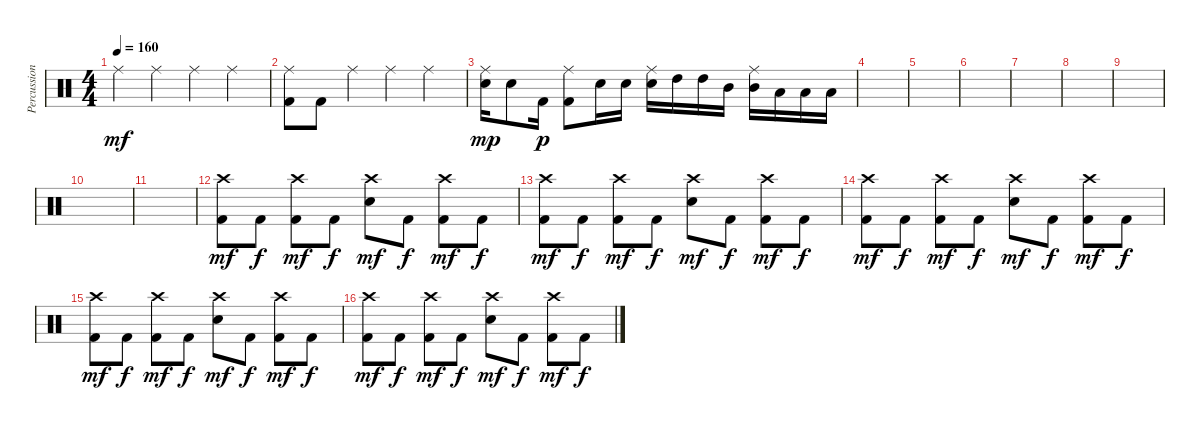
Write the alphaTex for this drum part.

\track ("Percussion" "Percussion") {instrument percussion}
\staff {score}
\articulation defaults
\ts (4 4)
\tempo 160
\clef neutral
\ks c "Ride (middle)".4{dy mf} "Ride (middle)".4 "Ride (middle)".4 "Ride (middle)".4
|
("Ride (middle)" "Kick (hit) 2").8 "Kick (hit) 2".8 "Ride (middle)".4 "Ride (middle)".4 "Ride (middle)".4 |
("Ride (middle)" "Electric Snare (hit)").16{dy mp} "Electric Snare (hit)".8 "Kick (hit) 2".16{dy p} ("Ride (middle)" "Kick (hit) 2").8 "Electric Snare (hit)".16 "Electric Snare (hit)".16 ("Ride (middle)" "Electric Snare (hit)").16 "High Tom (hit)".16 "High Tom (hit)".16 "Mid Tom (hit)".16 ("Ride (middle)" "Mid Tom (hit)").16 "Low Tom (hit)".16 "Low Tom (hit)".16 "Low Tom (hit)".16 |
|
|
|
|
|
|
|
|
("Crash high (hit)" "Kick (hit) 2").8{dy mf} "Kick (hit) 2".8{dy f} ("Crash high (hit)" "Kick (hit) 2").8{dy mf} "Kick (hit) 2".8{dy f} ("Crash high (hit)" "Electric Snare (hit)").8{dy mf} "Kick (hit) 2".8{dy f} ("Crash high (hit)" "Kick (hit) 2").8{dy mf} "Kick (hit) 2".8{dy f} |
("Crash high (hit)" "Kick (hit) 2").8{dy mf} "Kick (hit) 2".8{dy f} ("Crash high (hit)" "Kick (hit) 2").8{dy mf} "Kick (hit) 2".8{dy f} ("Crash high (hit)" "Electric Snare (hit)").8{dy mf} "Kick (hit) 2".8{dy f} ("Crash high (hit)" "Kick (hit) 2").8{dy mf} "Kick (hit) 2".8{dy f} |
("Crash high (hit)" "Kick (hit) 2").8{dy mf} "Kick (hit) 2".8{dy f} ("Crash high (hit)" "Kick (hit) 2").8{dy mf} "Kick (hit) 2".8{dy f} ("Crash high (hit)" "Electric Snare (hit)").8{dy mf} "Kick (hit) 2".8{dy f} ("Crash high (hit)" "Kick (hit) 2").8{dy mf} "Kick (hit) 2".8{dy f} |
("Crash high (hit)" "Kick (hit) 2").8{dy mf} "Kick (hit) 2".8{dy f} ("Crash high (hit)" "Kick (hit) 2").8{dy mf} "Kick (hit) 2".8{dy f} ("Crash high (hit)" "Electric Snare (hit)").8{dy mf} "Kick (hit) 2".8{dy f} ("Crash high (hit)" "Kick (hit) 2").8{dy mf} "Kick (hit) 2".8{dy f} |
("Crash high (hit)" "Kick (hit) 2").8{dy mf} "Kick (hit) 2".8{dy f} ("Crash high (hit)" "Kick (hit) 2").8{dy mf} "Kick (hit) 2".8{dy f} ("Crash high (hit)" "Electric Snare (hit)").8{dy mf} "Kick (hit) 2".8{dy f} ("Crash high (hit)" "Kick (hit) 2").8{dy mf} "Kick (hit) 2".8{dy f}
